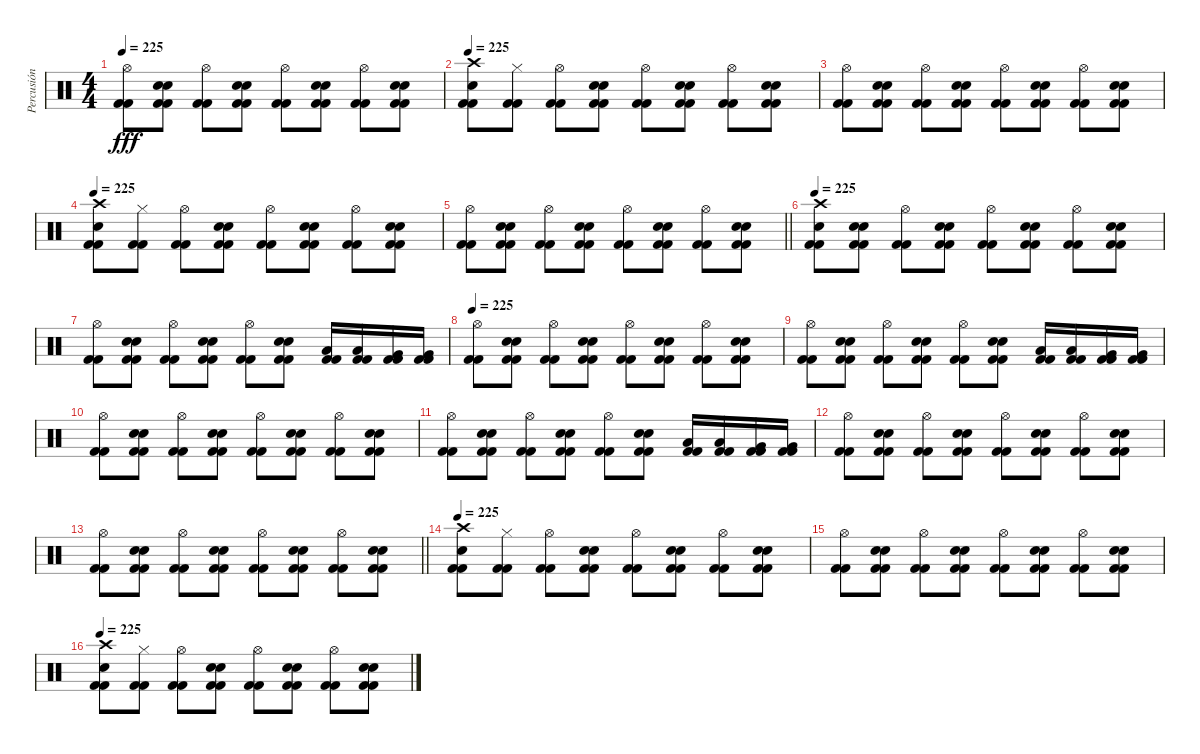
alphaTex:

\track ("Percusión" "Percusión") {instrument percussion}
\staff {score}
\articulation defaults
\ts (4 4)
\tempo 225
\clef neutral
\ks c
("Hi-Hat (open)" "Kick (hit) 2" "Kick (hit) 2").8{dy fff} ("Electric Snare (hit)" "Snare (hit) 2" "Kick (hit) 2" "Kick (hit) 2").8 ("Hi-Hat (open)" "Kick (hit) 2" "Kick (hit) 2").8 ("Electric Snare (hit)" "Snare (hit) 2" "Kick (hit) 2" "Kick (hit) 2").8 ("Hi-Hat (open)" "Kick (hit) 2" "Kick (hit) 2").8 ("Electric Snare (hit)" "Snare (hit) 2" "Kick (hit) 2" "Kick (hit) 2").8 ("Hi-Hat (open)" "Kick (hit) 2" "Kick (hit) 2").8 ("Electric Snare (hit)" "Snare (hit) 2" "Kick (hit) 2" "Kick (hit) 2").8 |
\tempo 225
("Crash high (hit)" "Snare (hit) 2" "Kick (hit) 2" "Kick (hit) 2").8 ("Hi-Hat (closed)" "Kick (hit) 2" "Kick (hit) 2").8 ("Hi-Hat (open)" "Kick (hit) 2" "Kick (hit) 2").8 ("Electric Snare (hit)" "Snare (hit) 2" "Kick (hit) 2" "Kick (hit) 2").8 ("Hi-Hat (open)" "Kick (hit) 2" "Kick (hit) 2").8 ("Electric Snare (hit)" "Snare (hit) 2" "Kick (hit) 2" "Kick (hit) 2").8 ("Hi-Hat (open)" "Kick (hit) 2" "Kick (hit) 2").8 ("Electric Snare (hit)" "Snare (hit) 2" "Kick (hit) 2" "Kick (hit) 2").8 |
("Hi-Hat (open)" "Kick (hit) 2" "Kick (hit) 2").8 ("Electric Snare (hit)" "Snare (hit) 2" "Kick (hit) 2" "Kick (hit) 2").8 ("Hi-Hat (open)" "Kick (hit) 2" "Kick (hit) 2").8 ("Electric Snare (hit)" "Snare (hit) 2" "Kick (hit) 2" "Kick (hit) 2").8 ("Hi-Hat (open)" "Kick (hit) 2" "Kick (hit) 2").8 ("Electric Snare (hit)" "Snare (hit) 2" "Kick (hit) 2" "Kick (hit) 2").8 ("Hi-Hat (open)" "Kick (hit) 2" "Kick (hit) 2").8 ("Electric Snare (hit)" "Snare (hit) 2" "Kick (hit) 2" "Kick (hit) 2").8 |
\tempo 225
("Crash high (hit)" "Snare (hit) 2" "Kick (hit) 2" "Kick (hit) 2").8 ("Hi-Hat (closed)" "Kick (hit) 2" "Kick (hit) 2").8 ("Hi-Hat (open)" "Kick (hit) 2" "Kick (hit) 2").8 ("Electric Snare (hit)" "Snare (hit) 2" "Kick (hit) 2" "Kick (hit) 2").8 ("Hi-Hat (open)" "Kick (hit) 2" "Kick (hit) 2").8 ("Electric Snare (hit)" "Snare (hit) 2" "Kick (hit) 2" "Kick (hit) 2").8 ("Hi-Hat (open)" "Kick (hit) 2" "Kick (hit) 2").8 ("Electric Snare (hit)" "Snare (hit) 2" "Kick (hit) 2" "Kick (hit) 2").8 |
\barLineRight lightlight
("Hi-Hat (open)" "Kick (hit) 2" "Kick (hit) 2").8 ("Electric Snare (hit)" "Snare (hit) 2" "Kick (hit) 2" "Kick (hit) 2").8 ("Hi-Hat (open)" "Kick (hit) 2" "Kick (hit) 2").8 ("Electric Snare (hit)" "Snare (hit) 2" "Kick (hit) 2" "Kick (hit) 2").8 ("Hi-Hat (open)" "Kick (hit) 2" "Kick (hit) 2").8 ("Electric Snare (hit)" "Snare (hit) 2" "Kick (hit) 2" "Kick (hit) 2").8 ("Hi-Hat (open)" "Kick (hit) 2" "Kick (hit) 2").8 ("Electric Snare (hit)" "Snare (hit) 2" "Kick (hit) 2" "Kick (hit) 2").8 |
\tempo 225
("Crash high (hit)" "Snare (hit) 2" "Kick (hit) 2" "Kick (hit) 2").8 ("Electric Snare (hit)" "Snare (hit) 2" "Kick (hit) 2" "Kick (hit) 2").8 ("Hi-Hat (open)" "Kick (hit) 2" "Kick (hit) 2").8 ("Electric Snare (hit)" "Snare (hit) 2" "Kick (hit) 2" "Kick (hit) 2").8 ("Hi-Hat (open)" "Kick (hit) 2" "Kick (hit) 2").8 ("Electric Snare (hit)" "Snare (hit) 2" "Kick (hit) 2" "Kick (hit) 2").8 ("Hi-Hat (open)" "Kick (hit) 2" "Kick (hit) 2").8 ("Electric Snare (hit)" "Snare (hit) 2" "Kick (hit) 2" "Kick (hit) 2").8 |
("Hi-Hat (open)" "Kick (hit) 2" "Kick (hit) 2").8 ("Electric Snare (hit)" "Snare (hit) 2" "Kick (hit) 2" "Kick (hit) 2").8 ("Hi-Hat (open)" "Kick (hit) 2" "Kick (hit) 2").8 ("Electric Snare (hit)" "Snare (hit) 2" "Kick (hit) 2" "Kick (hit) 2").8 ("Hi-Hat (open)" "Kick (hit) 2" "Kick (hit) 2").8 ("Electric Snare (hit)" "Snare (hit) 2" "Kick (hit) 2" "Kick (hit) 2").8 ("Low Tom (hit)" "Kick (hit) 2" "Kick (hit) 2").16 ("Low Tom (hit)" "Kick (hit) 2" "Kick (hit) 2").16 ("Very Low Tom (hit)" "Kick (hit) 2" "Kick (hit) 2").16 ("Very Low Tom (hit)" "Kick (hit) 2" "Kick (hit) 2").16 |
\tempo 225
("Hi-Hat (open)" "Kick (hit) 2" "Kick (hit) 2").8 ("Electric Snare (hit)" "Snare (hit) 2" "Kick (hit) 2" "Kick (hit) 2").8 ("Hi-Hat (open)" "Kick (hit) 2" "Kick (hit) 2").8 ("Electric Snare (hit)" "Snare (hit) 2" "Kick (hit) 2" "Kick (hit) 2").8 ("Hi-Hat (open)" "Kick (hit) 2" "Kick (hit) 2").8 ("Electric Snare (hit)" "Snare (hit) 2" "Kick (hit) 2" "Kick (hit) 2").8 ("Hi-Hat (open)" "Kick (hit) 2" "Kick (hit) 2").8 ("Electric Snare (hit)" "Snare (hit) 2" "Kick (hit) 2" "Kick (hit) 2").8 |
("Hi-Hat (open)" "Kick (hit) 2" "Kick (hit) 2").8 ("Electric Snare (hit)" "Snare (hit) 2" "Kick (hit) 2" "Kick (hit) 2").8 ("Hi-Hat (open)" "Kick (hit) 2" "Kick (hit) 2").8 ("Electric Snare (hit)" "Snare (hit) 2" "Kick (hit) 2" "Kick (hit) 2").8 ("Hi-Hat (open)" "Kick (hit) 2" "Kick (hit) 2").8 ("Electric Snare (hit)" "Snare (hit) 2" "Kick (hit) 2" "Kick (hit) 2").8 ("Low Tom (hit)" "Kick (hit) 2" "Kick (hit) 2").16 ("Low Tom (hit)" "Kick (hit) 2" "Kick (hit) 2").16 ("Very Low Tom (hit)" "Kick (hit) 2" "Kick (hit) 2").16 ("Very Low Tom (hit)" "Kick (hit) 2" "Kick (hit) 2").16 |
("Hi-Hat (open)" "Kick (hit) 2" "Kick (hit) 2").8 ("Electric Snare (hit)" "Snare (hit) 2" "Kick (hit) 2" "Kick (hit) 2").8 ("Hi-Hat (open)" "Kick (hit) 2" "Kick (hit) 2").8 ("Electric Snare (hit)" "Snare (hit) 2" "Kick (hit) 2" "Kick (hit) 2").8 ("Hi-Hat (open)" "Kick (hit) 2" "Kick (hit) 2").8 ("Electric Snare (hit)" "Snare (hit) 2" "Kick (hit) 2" "Kick (hit) 2").8 ("Hi-Hat (open)" "Kick (hit) 2" "Kick (hit) 2").8 ("Electric Snare (hit)" "Snare (hit) 2" "Kick (hit) 2" "Kick (hit) 2").8 |
("Hi-Hat (open)" "Kick (hit) 2" "Kick (hit) 2").8 ("Electric Snare (hit)" "Snare (hit) 2" "Kick (hit) 2" "Kick (hit) 2").8 ("Hi-Hat (open)" "Kick (hit) 2" "Kick (hit) 2").8 ("Electric Snare (hit)" "Snare (hit) 2" "Kick (hit) 2" "Kick (hit) 2").8 ("Hi-Hat (open)" "Kick (hit) 2" "Kick (hit) 2").8 ("Electric Snare (hit)" "Snare (hit) 2" "Kick (hit) 2" "Kick (hit) 2").8 ("Low Tom (hit)" "Kick (hit) 2" "Kick (hit) 2").16 ("Low Tom (hit)" "Kick (hit) 2" "Kick (hit) 2").16 ("Very Low Tom (hit)" "Kick (hit) 2" "Kick (hit) 2").16 ("Very Low Tom (hit)" "Kick (hit) 2" "Kick (hit) 2").16 |
("Hi-Hat (open)" "Kick (hit) 2" "Kick (hit) 2").8 ("Electric Snare (hit)" "Snare (hit) 2" "Kick (hit) 2" "Kick (hit) 2").8 ("Hi-Hat (open)" "Kick (hit) 2" "Kick (hit) 2").8 ("Electric Snare (hit)" "Snare (hit) 2" "Kick (hit) 2" "Kick (hit) 2").8 ("Hi-Hat (open)" "Kick (hit) 2" "Kick (hit) 2").8 ("Electric Snare (hit)" "Snare (hit) 2" "Kick (hit) 2" "Kick (hit) 2").8 ("Hi-Hat (open)" "Kick (hit) 2" "Kick (hit) 2").8 ("Electric Snare (hit)" "Snare (hit) 2" "Kick (hit) 2" "Kick (hit) 2").8 |
\barLineRight lightlight
("Hi-Hat (open)" "Kick (hit) 2" "Kick (hit) 2").8 ("Electric Snare (hit)" "Snare (hit) 2" "Kick (hit) 2" "Kick (hit) 2").8 ("Hi-Hat (open)" "Kick (hit) 2" "Kick (hit) 2").8 ("Electric Snare (hit)" "Snare (hit) 2" "Kick (hit) 2" "Kick (hit) 2").8 ("Hi-Hat (open)" "Kick (hit) 2" "Kick (hit) 2").8 ("Electric Snare (hit)" "Snare (hit) 2" "Kick (hit) 2" "Kick (hit) 2").8 ("Hi-Hat (open)" "Kick (hit) 2" "Kick (hit) 2").8 ("Electric Snare (hit)" "Snare (hit) 2" "Kick (hit) 2" "Kick (hit) 2").8 |
\tempo 225
("Crash high (hit)" "Snare (hit) 2" "Kick (hit) 2" "Kick (hit) 2").8 ("Hi-Hat (closed)" "Kick (hit) 2" "Kick (hit) 2").8 ("Hi-Hat (open)" "Kick (hit) 2" "Kick (hit) 2").8 ("Electric Snare (hit)" "Snare (hit) 2" "Kick (hit) 2" "Kick (hit) 2").8 ("Hi-Hat (open)" "Kick (hit) 2" "Kick (hit) 2").8 ("Electric Snare (hit)" "Snare (hit) 2" "Kick (hit) 2" "Kick (hit) 2").8 ("Hi-Hat (open)" "Kick (hit) 2" "Kick (hit) 2").8 ("Electric Snare (hit)" "Snare (hit) 2" "Kick (hit) 2" "Kick (hit) 2").8 |
("Hi-Hat (open)" "Kick (hit) 2" "Kick (hit) 2").8 ("Electric Snare (hit)" "Snare (hit) 2" "Kick (hit) 2" "Kick (hit) 2").8 ("Hi-Hat (open)" "Kick (hit) 2" "Kick (hit) 2").8 ("Electric Snare (hit)" "Snare (hit) 2" "Kick (hit) 2" "Kick (hit) 2").8 ("Hi-Hat (open)" "Kick (hit) 2" "Kick (hit) 2").8 ("Electric Snare (hit)" "Snare (hit) 2" "Kick (hit) 2" "Kick (hit) 2").8 ("Hi-Hat (open)" "Kick (hit) 2" "Kick (hit) 2").8 ("Electric Snare (hit)" "Snare (hit) 2" "Kick (hit) 2" "Kick (hit) 2").8 |
\tempo 225
("Crash high (hit)" "Snare (hit) 2" "Kick (hit) 2" "Kick (hit) 2").8 ("Hi-Hat (closed)" "Kick (hit) 2" "Kick (hit) 2").8 ("Hi-Hat (open)" "Kick (hit) 2" "Kick (hit) 2").8 ("Electric Snare (hit)" "Snare (hit) 2" "Kick (hit) 2" "Kick (hit) 2").8 ("Hi-Hat (open)" "Kick (hit) 2" "Kick (hit) 2").8 ("Electric Snare (hit)" "Snare (hit) 2" "Kick (hit) 2" "Kick (hit) 2").8 ("Hi-Hat (open)" "Kick (hit) 2" "Kick (hit) 2").8 ("Electric Snare (hit)" "Snare (hit) 2" "Kick (hit) 2" "Kick (hit) 2").8
